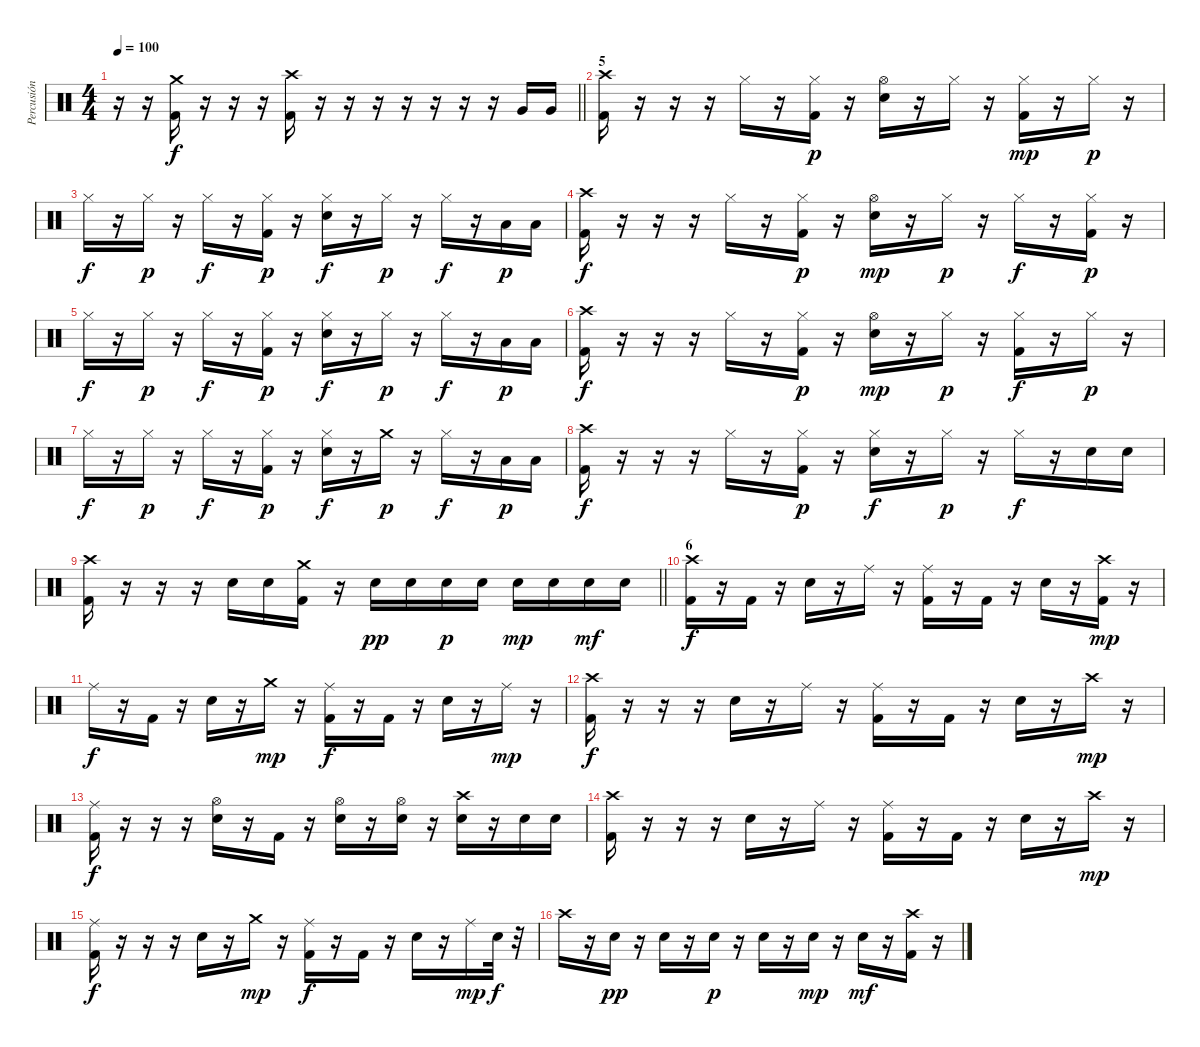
\track ("Percusión" "Percusión") {instrument percussion}
\staff {score}
\articulation defaults
\ts (4 4)
\tempo 100
\clef neutral
\barLineRight lightlight
\ks c
r.16{dy f} r.16 ("Crash medium (hit)" "Kick (hit) 2").16 r.16 r.16 r.16 ("Crash high (hit)" "Kick (hit) 2").16 r.16 r.16 r.16 r.16 r.16 r.16 r.16 "Very Low Tom (hit)".16 "Very Low Tom (hit)".16 |
\section ("" "5")
("Crash high (hit)" "Kick (hit) 2").16 r.16 r.16 r.16 "Hi-Hat (closed)".16 r.16 ("Hi-Hat (closed)" "Kick (hit) 2").16{dy p} r.16 ("Hi-Hat (open)" "Electric Snare (hit)").16 r.16 "Hi-Hat (closed)".16 r.16 ("Hi-Hat (closed)" "Kick (hit) 2").16{dy mp} r.16 "Hi-Hat (closed)".16{dy p} r.16 |
"Hi-Hat (closed)".16{dy f} r.16 "Hi-Hat (closed)".16{dy p} r.16 "Hi-Hat (closed)".16{dy f} r.16 ("Hi-Hat (closed)" "Kick (hit) 2").16{dy p} r.16 ("Hi-Hat (closed)" "Electric Snare (hit)").16{dy f} r.16 "Hi-Hat (closed)".16{dy p} r.16 "Hi-Hat (closed)".16{dy f} r.16 "Low Floor Tom (hit)".16{dy p} "Low Floor Tom (hit)".16 |
("Crash high (hit)" "Kick (hit) 2").16{dy f} r.16 r.16 r.16 "Hi-Hat (closed)".16 r.16 ("Hi-Hat (closed)" "Kick (hit) 2").16{dy p} r.16 ("Hi-Hat (open)" "Electric Snare (hit)").16{dy mp} r.16 "Hi-Hat (closed)".16{dy p} r.16 "Hi-Hat (closed)".16{dy f} r.16 ("Hi-Hat (closed)" "Kick (hit) 2").16{dy p} r.16 |
"Hi-Hat (closed)".16{dy f} r.16 "Hi-Hat (closed)".16{dy p} r.16 "Hi-Hat (closed)".16{dy f} r.16 ("Hi-Hat (closed)" "Kick (hit) 2").16{dy p} r.16 ("Hi-Hat (closed)" "Electric Snare (hit)").16{dy f} r.16 "Hi-Hat (closed)".16{dy p} r.16 "Hi-Hat (closed)".16{dy f} r.16 "Low Floor Tom (hit)".16{dy p} "Low Floor Tom (hit)".16 |
("Crash high (hit)" "Kick (hit) 2").16{dy f} r.16 r.16 r.16 "Hi-Hat (closed)".16 r.16 ("Hi-Hat (closed)" "Kick (hit) 2").16{dy p} r.16 ("Hi-Hat (open)" "Electric Snare (hit)").16{dy mp} r.16 "Hi-Hat (closed)".16{dy p} r.16 ("Hi-Hat (closed)" "Kick (hit) 2").16{dy f} r.16 "Hi-Hat (closed)".16{dy p} r.16 |
"Hi-Hat (closed)".16{dy f} r.16 "Hi-Hat (closed)".16{dy p} r.16 "Hi-Hat (closed)".16{dy f} r.16 ("Hi-Hat (closed)" "Kick (hit) 2").16{dy p} r.16 ("Hi-Hat (closed)" "Electric Snare (hit)").16{dy f} r.16 "Crash medium (hit)".16{dy p} r.16 "Hi-Hat (closed)".16{dy f} r.16 "Low Floor Tom (hit)".16{dy p} "Low Floor Tom (hit)".16 |
("Crash high (hit)" "Kick (hit) 2").16{dy f} r.16 r.16 r.16 "Hi-Hat (closed)".16 r.16 ("Hi-Hat (closed)" "Kick (hit) 2").16{dy p} r.16 ("Hi-Hat (closed)" "Electric Snare (hit)").16{dy f} r.16 "Hi-Hat (closed)".16{dy p} r.16 "Hi-Hat (closed)".16{dy f} r.16 "Electric Snare (hit)".16 "Electric Snare (hit)".16 |
\barLineRight lightlight
("Crash high (hit)" "Kick (hit) 2").16 r.16 r.16 r.16 "Electric Snare (hit)".16 "Electric Snare (hit)".16 ("Crash medium (hit)" "Kick (hit) 2").16 r.16 "Electric Snare (hit)".16{dy pp} "Electric Snare (hit)".16 "Electric Snare (hit)".16{dy p} "Electric Snare (hit)".16 "Electric Snare (hit)".16{dy mp} "Electric Snare (hit)".16 "Electric Snare (hit)".16{dy mf} "Electric Snare (hit)".16 |
\section ("" "6")
("Crash high (hit)" "Kick (hit) 2").16{dy f} r.16 "Kick (hit) 2".16 r.16 "Electric Snare (hit)".16 r.16 "Ride (middle)".16 r.16 ("Ride (middle)" "Kick (hit) 2").16 r.16 "Kick (hit) 2".16 r.16 "Electric Snare (hit)".16 r.16 ("Crash high (hit)" "Kick (hit) 2").16{dy mp} r.16 |
"Ride (middle)".16{dy f} r.16 "Kick (hit) 2".16 r.16 "Electric Snare (hit)".16 r.16 "Crash medium (hit)".16{dy mp} r.16 ("Ride (middle)" "Kick (hit) 2").16{dy f} r.16 "Kick (hit) 2".16 r.16 "Electric Snare (hit)".16 r.16 "Ride (middle)".16{dy mp} r.16 |
("Crash high (hit)" "Kick (hit) 2").16{dy f} r.16 r.16 r.16 "Electric Snare (hit)".16 r.16 "Ride (middle)".16 r.16 ("Ride (middle)" "Kick (hit) 2").16 r.16 "Kick (hit) 2".16 r.16 "Electric Snare (hit)".16 r.16 "Crash high (hit)".16{dy mp} r.16 |
("Ride (middle)" "Kick (hit) 2").16{dy f} r.16 r.16 r.16 ("Hi-Hat (open)" "Electric Snare (hit)").16 r.16 "Kick (hit) 2".16 r.16 ("Hi-Hat (open)" "Electric Snare (hit)").16 r.16 ("Hi-Hat (open)" "Electric Snare (hit)").16 r.16 ("Crash high (hit)" "Electric Snare (hit)").16 r.16 "Electric Snare (hit)".16 "Electric Snare (hit)".16 |
("Crash high (hit)" "Kick (hit) 2").16 r.16 r.16 r.16 "Electric Snare (hit)".16 r.16 "Ride (middle)".16 r.16 ("Ride (middle)" "Kick (hit) 2").16 r.16 "Kick (hit) 2".16 r.16 "Electric Snare (hit)".16 r.16 "Crash high (hit)".16{dy mp} r.16 |
("Ride (middle)" "Kick (hit) 2").16{dy f} r.16 r.16 r.16 "Electric Snare (hit)".16 r.16 "Crash medium (hit)".16{dy mp} r.16 ("Ride (middle)" "Kick (hit) 2").16{dy f} r.16 "Kick (hit) 2".16 r.16 "Electric Snare (hit)".16 r.16 "Ride (middle)".16{dy mp} "Electric Snare (hit)".32{dy f} r.32 |
"Crash high (hit)".16 r.16 "Electric Snare (hit)".16{dy pp} r.16 "Electric Snare (hit)".16 r.16 "Electric Snare (hit)".16{dy p} r.16 "Electric Snare (hit)".16 r.16 "Electric Snare (hit)".16{dy mp} r.16 "Electric Snare (hit)".16{dy mf} r.16 ("Crash high (hit)" "Kick (hit) 2").16 r.16
